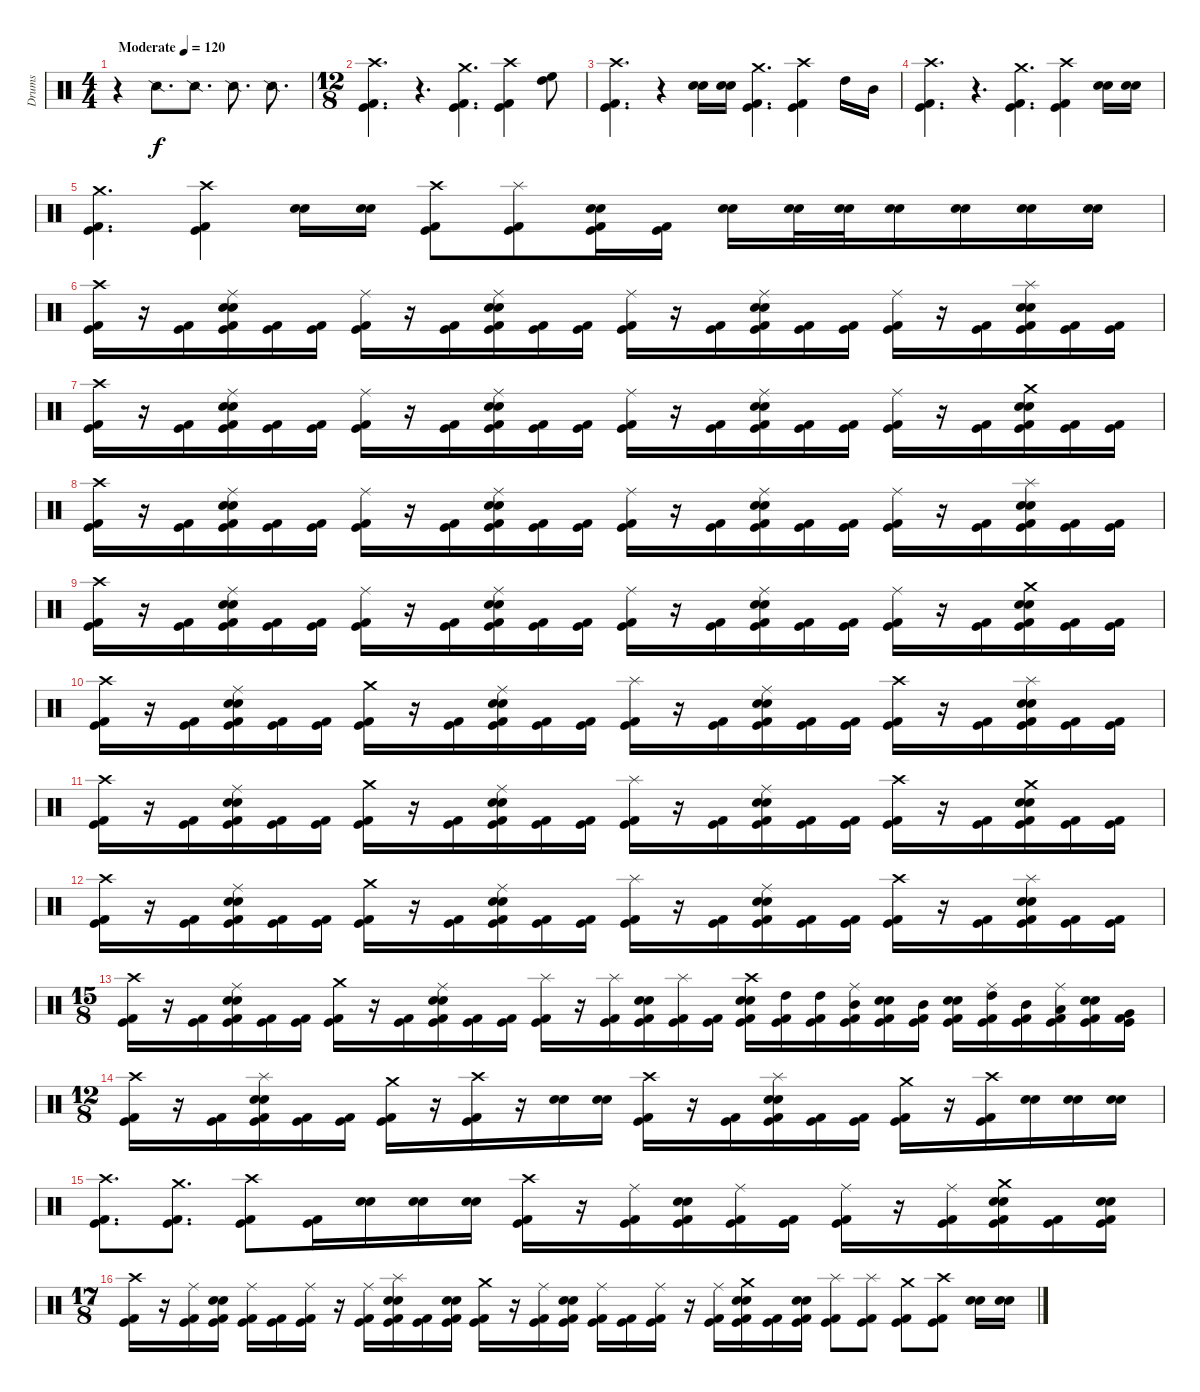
\track ("Drums" "Drums") {instrument percussion}
\staff {score}
\articulation defaults
\ts (4 4)
\tempo (120 "Moderate")
\clef neutral
\ks c
r.4{dy f} "Snare (side stick) 2".8{d} "Snare (side stick) 2".8{d} "Snare (side stick) 2".8{d} "Snare (side stick) 2".8{d} |
\ts (12 8)
("Crash high (hit)" "Kick (hit) 2" "Kick (hit)").4{d} r.4{d} ("Crash medium (hit)" "Kick (hit) 2" "Kick (hit)").4{d} ("Crash high (hit)" "Kick (hit) 2" "Kick (hit)").4 ("High Floor Tom (hit)" "High Tom (hit)").8{bd 60} |
("Crash high (hit)" "Kick (hit) 2" "Kick (hit)").4{d} r.4 ("Electric Snare (hit)" "Snare (hit) 2").16 ("Electric Snare (hit)" "Snare (hit) 2").16 ("Crash medium (hit)" "Kick (hit) 2" "Kick (hit)").4{d} ("Crash high (hit)" "Kick (hit) 2" "Kick (hit)").4 "High Tom (hit)".16 "Mid Tom (hit)".16 |
("Crash high (hit)" "Kick (hit) 2" "Kick (hit)").4{d} r.4{d} ("Crash medium (hit)" "Kick (hit) 2" "Kick (hit)").4{d} ("Crash high (hit)" "Kick (hit) 2" "Kick (hit)").4 ("Electric Snare (hit)" "Snare (hit) 2").16 ("Electric Snare (hit)" "Snare (hit) 2").16 |
("Crash medium (hit)" "Kick (hit) 2" "Kick (hit)").4{d} ("Crash high (hit)" "Kick (hit) 2" "Kick (hit)").4 ("Electric Snare (hit)" "Snare (hit) 2").16 ("Electric Snare (hit)" "Snare (hit) 2").16 ("Crash high (hit)" "Kick (hit) 2" "Kick (hit)").8 ("Splash (hit)" "Kick (hit) 2" "Kick (hit)").8 ("Electric Snare (hit)" "Snare (hit) 2" "Kick (hit) 2" "Kick (hit)").16 ("Kick (hit) 2" "Kick (hit)").16 ("Electric Snare (hit)" "Snare (hit) 2").16 ("Electric Snare (hit)" "Snare (hit) 2").32 ("Electric Snare (hit)" "Snare (hit) 2").32 ("Electric Snare (hit)" "Snare (hit) 2").16 ("Electric Snare (hit)" "Snare (hit) 2").16 ("Electric Snare (hit)" "Snare (hit) 2").16 ("Electric Snare (hit)" "Snare (hit) 2").16 |
("Crash high (hit)" "Kick (hit) 2" "Kick (hit)").16 r.16 ("Kick (hit) 2" "Kick (hit)").16 ("Ride (middle)" "Electric Snare (hit)" "Snare (hit) 2" "Kick (hit) 2" "Kick (hit)").16 ("Kick (hit) 2" "Kick (hit)").16 ("Kick (hit) 2" "Kick (hit)").16 ("Ride (middle)" "Kick (hit) 2" "Kick (hit)").16 r.16 ("Kick (hit) 2" "Kick (hit)").16 ("Ride (middle)" "Electric Snare (hit)" "Snare (hit) 2" "Kick (hit) 2" "Kick (hit)").16 ("Kick (hit) 2" "Kick (hit)").16 ("Kick (hit) 2" "Kick (hit)").16 ("Ride (middle)" "Kick (hit) 2" "Kick (hit)").16 r.16 ("Kick (hit) 2" "Kick (hit)").16 ("Ride (middle)" "Electric Snare (hit)" "Snare (hit) 2" "Kick (hit) 2" "Kick (hit)").16 ("Kick (hit) 2" "Kick (hit)").16 ("Kick (hit) 2" "Kick (hit)").16 ("Ride (middle)" "Kick (hit) 2" "Kick (hit)").16 r.16 ("Kick (hit) 2" "Kick (hit)").16 ("Splash (hit)" "Electric Snare (hit)" "Snare (hit) 2" "Kick (hit) 2" "Kick (hit)").16 ("Kick (hit) 2" "Kick (hit)").16 ("Kick (hit) 2" "Kick (hit)").16 |
("Crash high (hit)" "Kick (hit) 2" "Kick (hit)").16 r.16 ("Kick (hit) 2" "Kick (hit)").16 ("Ride (middle)" "Electric Snare (hit)" "Snare (hit) 2" "Kick (hit) 2" "Kick (hit)").16 ("Kick (hit) 2" "Kick (hit)").16 ("Kick (hit) 2" "Kick (hit)").16 ("Ride (middle)" "Kick (hit) 2" "Kick (hit)").16 r.16 ("Kick (hit) 2" "Kick (hit)").16 ("Ride (middle)" "Electric Snare (hit)" "Snare (hit) 2" "Kick (hit) 2" "Kick (hit)").16 ("Kick (hit) 2" "Kick (hit)").16 ("Kick (hit) 2" "Kick (hit)").16 ("Ride (middle)" "Kick (hit) 2" "Kick (hit)").16 r.16 ("Kick (hit) 2" "Kick (hit)").16 ("Ride (middle)" "Electric Snare (hit)" "Snare (hit) 2" "Kick (hit) 2" "Kick (hit)").16 ("Kick (hit) 2" "Kick (hit)").16 ("Kick (hit) 2" "Kick (hit)").16 ("Ride (middle)" "Kick (hit) 2" "Kick (hit)").16 r.16 ("Kick (hit) 2" "Kick (hit)").16 ("Crash medium (hit)" "Electric Snare (hit)" "Snare (hit) 2" "Kick (hit) 2" "Kick (hit)").16 ("Kick (hit) 2" "Kick (hit)").16 ("Kick (hit) 2" "Kick (hit)").16 |
("Crash high (hit)" "Kick (hit) 2" "Kick (hit)").16 r.16 ("Kick (hit) 2" "Kick (hit)").16 ("Ride (middle)" "Electric Snare (hit)" "Snare (hit) 2" "Kick (hit) 2" "Kick (hit)").16 ("Kick (hit) 2" "Kick (hit)").16 ("Kick (hit) 2" "Kick (hit)").16 ("Ride (middle)" "Kick (hit) 2" "Kick (hit)").16 r.16 ("Kick (hit) 2" "Kick (hit)").16 ("Ride (middle)" "Electric Snare (hit)" "Snare (hit) 2" "Kick (hit) 2" "Kick (hit)").16 ("Kick (hit) 2" "Kick (hit)").16 ("Kick (hit) 2" "Kick (hit)").16 ("Ride (middle)" "Kick (hit) 2" "Kick (hit)").16 r.16 ("Kick (hit) 2" "Kick (hit)").16 ("Ride (middle)" "Electric Snare (hit)" "Snare (hit) 2" "Kick (hit) 2" "Kick (hit)").16 ("Kick (hit) 2" "Kick (hit)").16 ("Kick (hit) 2" "Kick (hit)").16 ("Ride (middle)" "Kick (hit) 2" "Kick (hit)").16 r.16 ("Kick (hit) 2" "Kick (hit)").16 ("Splash (hit)" "Electric Snare (hit)" "Snare (hit) 2" "Kick (hit) 2" "Kick (hit)").16 ("Kick (hit) 2" "Kick (hit)").16 ("Kick (hit) 2" "Kick (hit)").16 |
("Crash high (hit)" "Kick (hit) 2" "Kick (hit)").16 r.16 ("Kick (hit) 2" "Kick (hit)").16 ("Ride (middle)" "Electric Snare (hit)" "Snare (hit) 2" "Kick (hit) 2" "Kick (hit)").16 ("Kick (hit) 2" "Kick (hit)").16 ("Kick (hit) 2" "Kick (hit)").16 ("Ride (middle)" "Kick (hit) 2" "Kick (hit)").16 r.16 ("Kick (hit) 2" "Kick (hit)").16 ("Ride (middle)" "Electric Snare (hit)" "Snare (hit) 2" "Kick (hit) 2" "Kick (hit)").16 ("Kick (hit) 2" "Kick (hit)").16 ("Kick (hit) 2" "Kick (hit)").16 ("Ride (middle)" "Kick (hit) 2" "Kick (hit)").16 r.16 ("Kick (hit) 2" "Kick (hit)").16 ("Ride (middle)" "Electric Snare (hit)" "Snare (hit) 2" "Kick (hit) 2" "Kick (hit)").16 ("Kick (hit) 2" "Kick (hit)").16 ("Kick (hit) 2" "Kick (hit)").16 ("Ride (middle)" "Kick (hit) 2" "Kick (hit)").16 r.16 ("Kick (hit) 2" "Kick (hit)").16 ("Crash medium (hit)" "Electric Snare (hit)" "Snare (hit) 2" "Kick (hit) 2" "Kick (hit)").16 ("Kick (hit) 2" "Kick (hit)").16 ("Kick (hit) 2" "Kick (hit)").16 |
("Crash high (hit)" "Kick (hit) 2" "Kick (hit)").16 r.16 ("Kick (hit) 2" "Kick (hit)").16 ("Ride (middle)" "Electric Snare (hit)" "Snare (hit) 2" "Kick (hit) 2" "Kick (hit)").16 ("Kick (hit) 2" "Kick (hit)").16 ("Kick (hit) 2" "Kick (hit)").16 ("Crash medium (hit)" "Kick (hit) 2" "Kick (hit)").16 r.16 ("Kick (hit) 2" "Kick (hit)").16 ("Ride (middle)" "Electric Snare (hit)" "Snare (hit) 2" "Kick (hit) 2" "Kick (hit)").16 ("Kick (hit) 2" "Kick (hit)").16 ("Kick (hit) 2" "Kick (hit)").16 ("Splash (hit)" "Kick (hit) 2" "Kick (hit)").16 r.16 ("Kick (hit) 2" "Kick (hit)").16 ("Ride (middle)" "Electric Snare (hit)" "Snare (hit) 2" "Kick (hit) 2" "Kick (hit)").16 ("Kick (hit) 2" "Kick (hit)").16 ("Kick (hit) 2" "Kick (hit)").16 ("Crash high (hit)" "Kick (hit) 2" "Kick (hit)").16 r.16 ("Kick (hit) 2" "Kick (hit)").16 ("Splash (hit)" "Electric Snare (hit)" "Snare (hit) 2" "Kick (hit) 2" "Kick (hit)").16 ("Kick (hit) 2" "Kick (hit)").16 ("Kick (hit) 2" "Kick (hit)").16 |
("Crash high (hit)" "Kick (hit) 2" "Kick (hit)").16 r.16 ("Kick (hit) 2" "Kick (hit)").16 ("Ride (middle)" "Electric Snare (hit)" "Snare (hit) 2" "Kick (hit) 2" "Kick (hit)").16 ("Kick (hit) 2" "Kick (hit)").16 ("Kick (hit) 2" "Kick (hit)").16 ("Crash medium (hit)" "Kick (hit) 2" "Kick (hit)").16 r.16 ("Kick (hit) 2" "Kick (hit)").16 ("Ride (middle)" "Electric Snare (hit)" "Snare (hit) 2" "Kick (hit) 2" "Kick (hit)").16 ("Kick (hit) 2" "Kick (hit)").16 ("Kick (hit) 2" "Kick (hit)").16 ("Splash (hit)" "Kick (hit) 2" "Kick (hit)").16 r.16 ("Kick (hit) 2" "Kick (hit)").16 ("Ride (middle)" "Electric Snare (hit)" "Snare (hit) 2" "Kick (hit) 2" "Kick (hit)").16 ("Kick (hit) 2" "Kick (hit)").16 ("Kick (hit) 2" "Kick (hit)").16 ("Crash high (hit)" "Kick (hit) 2" "Kick (hit)").16 r.16 ("Kick (hit) 2" "Kick (hit)").16 ("Crash medium (hit)" "Electric Snare (hit)" "Snare (hit) 2" "Kick (hit) 2" "Kick (hit)").16 ("Kick (hit) 2" "Kick (hit)").16 ("Kick (hit) 2" "Kick (hit)").16 |
("Crash high (hit)" "Kick (hit) 2" "Kick (hit)").16 r.16 ("Kick (hit) 2" "Kick (hit)").16 ("Ride (middle)" "Electric Snare (hit)" "Snare (hit) 2" "Kick (hit) 2" "Kick (hit)").16 ("Kick (hit) 2" "Kick (hit)").16 ("Kick (hit) 2" "Kick (hit)").16 ("Crash medium (hit)" "Kick (hit) 2" "Kick (hit)").16 r.16 ("Kick (hit) 2" "Kick (hit)").16 ("Ride (middle)" "Electric Snare (hit)" "Snare (hit) 2" "Kick (hit) 2" "Kick (hit)").16 ("Kick (hit) 2" "Kick (hit)").16 ("Kick (hit) 2" "Kick (hit)").16 ("Splash (hit)" "Kick (hit) 2" "Kick (hit)").16 r.16 ("Kick (hit) 2" "Kick (hit)").16 ("Ride (middle)" "Electric Snare (hit)" "Snare (hit) 2" "Kick (hit) 2" "Kick (hit)").16 ("Kick (hit) 2" "Kick (hit)").16 ("Kick (hit) 2" "Kick (hit)").16 ("Crash high (hit)" "Kick (hit) 2" "Kick (hit)").16 r.16 ("Kick (hit) 2" "Kick (hit)").16 ("Splash (hit)" "Electric Snare (hit)" "Snare (hit) 2" "Kick (hit) 2" "Kick (hit)").16 ("Kick (hit) 2" "Kick (hit)").16 ("Kick (hit) 2" "Kick (hit)").16 |
\ts (15 8)
("Crash high (hit)" "Kick (hit) 2" "Kick (hit)").16 r.16 ("Kick (hit) 2" "Kick (hit)").16 ("Ride (middle)" "Electric Snare (hit)" "Snare (hit) 2" "Kick (hit) 2" "Kick (hit)").16 ("Kick (hit) 2" "Kick (hit)").16 ("Kick (hit) 2" "Kick (hit)").16 ("Crash medium (hit)" "Kick (hit) 2" "Kick (hit)").16 r.16 ("Kick (hit) 2" "Kick (hit)").16 ("Ride (middle)" "Electric Snare (hit)" "Snare (hit) 2" "Kick (hit) 2" "Kick (hit)").16 ("Kick (hit) 2" "Kick (hit)").16 ("Kick (hit) 2" "Kick (hit)").16 ("Splash (hit)" "Kick (hit) 2" "Kick (hit)").16 r.16 ("Splash (hit)" "Kick (hit) 2" "Kick (hit)").16 ("Electric Snare (hit)" "Snare (hit) 2" "Kick (hit) 2" "Kick (hit)").16 ("Splash (hit)" "Kick (hit) 2" "Kick (hit)").16 ("Kick (hit) 2" "Kick (hit)").16 ("Electric Snare (hit)" "Snare (hit) 2" "Crash high (hit)" "Kick (hit) 2" "Kick (hit)").16 ("High Tom (hit)" "Kick (hit) 2" "Kick (hit)").16 ("High Tom (hit)" "Kick (hit) 2" "Kick (hit)").16 ("Mid Tom (hit)" "Ride (middle)" "Kick (hit) 2" "Kick (hit)").16 ("Electric Snare (hit)" "Snare (hit) 2" "Kick (hit) 2" "Kick (hit)").16 ("Mid Tom (hit)" "Kick (hit) 2" "Kick (hit)").16 ("Electric Snare (hit)" "Snare (hit) 2" "Kick (hit) 2" "Kick (hit)").16 ("High Tom (hit)" "Ride (middle)" "Kick (hit) 2" "Kick (hit)").16 ("Mid Tom (hit)" "Kick (hit) 2" "Kick (hit)").16 ("Low Tom (hit)" "Ride (middle)" "Kick (hit) 2" "Kick (hit)").16 ("Electric Snare (hit)" "Snare (hit) 2" "Kick (hit) 2" "Kick (hit)").16 ("Very Low Tom (hit)" "Kick (hit) 2" "Kick (hit)").16 |
\ts (12 8)
("Crash high (hit)" "Kick (hit) 2" "Kick (hit)").16 r.16 ("Kick (hit) 2" "Kick (hit)").16 ("Splash (hit)" "Electric Snare (hit)" "Snare (hit) 2" "Kick (hit) 2" "Kick (hit)").16 ("Kick (hit) 2" "Kick (hit)").16 ("Kick (hit) 2" "Kick (hit)").16 ("Crash medium (hit)" "Kick (hit) 2" "Kick (hit)").16 r.16 ("Crash high (hit)" "Kick (hit) 2" "Kick (hit)").16 r.16 ("Electric Snare (hit)" "Snare (hit) 2").16 ("Electric Snare (hit)" "Snare (hit) 2").16 ("Crash high (hit)" "Kick (hit) 2" "Kick (hit)").16 r.16 ("Kick (hit) 2" "Kick (hit)").16 ("Splash (hit)" "Electric Snare (hit)" "Snare (hit) 2" "Kick (hit) 2" "Kick (hit)").16 ("Kick (hit) 2" "Kick (hit)").16 ("Kick (hit) 2" "Kick (hit)").16 ("Crash medium (hit)" "Kick (hit) 2" "Kick (hit)").16 r.16 ("Crash high (hit)" "Kick (hit) 2" "Kick (hit)").16 ("Electric Snare (hit)" "Snare (hit) 2").16 ("Electric Snare (hit)" "Snare (hit) 2").16 ("Electric Snare (hit)" "Snare (hit) 2").16 |
("Crash high (hit)" "Kick (hit) 2" "Kick (hit)").8{d} ("Crash medium (hit)" "Kick (hit) 2" "Kick (hit)").8{d} ("Crash high (hit)" "Kick (hit) 2" "Kick (hit)").8 ("Kick (hit) 2" "Kick (hit)").16 ("Electric Snare (hit)" "Snare (hit) 2").16 ("Electric Snare (hit)" "Snare (hit) 2").16 ("Electric Snare (hit)" "Snare (hit) 2").16 ("Crash high (hit)" "Kick (hit) 2" "Kick (hit)").16 r.16 ("Ride (middle)" "Kick (hit) 2" "Kick (hit)").16 ("Electric Snare (hit)" "Snare (hit) 2" "Kick (hit) 2" "Kick (hit)").16 ("Ride (middle)" "Kick (hit) 2" "Kick (hit)").16 ("Kick (hit) 2" "Kick (hit)").16 ("Ride (middle)" "Kick (hit) 2" "Kick (hit)").16 r.16 ("Ride (middle)" "Kick (hit) 2" "Kick (hit)").16 ("Crash medium (hit)" "Electric Snare (hit)" "Snare (hit) 2" "Kick (hit) 2" "Kick (hit)").16 ("Kick (hit) 2" "Kick (hit)").16 ("Electric Snare (hit)" "Snare (hit) 2" "Kick (hit) 2" "Kick (hit)").16 |
\ts (17 8)
("Crash high (hit)" "Kick (hit) 2" "Kick (hit)").16 r.16 ("Ride (middle)" "Kick (hit) 2" "Kick (hit)").16 ("Electric Snare (hit)" "Snare (hit) 2" "Kick (hit) 2" "Kick (hit)").16 ("Ride (middle)" "Kick (hit) 2" "Kick (hit)").16 ("Kick (hit) 2" "Kick (hit)").16 ("Ride (middle)" "Kick (hit) 2" "Kick (hit)").16 r.16 ("Ride (middle)" "Kick (hit) 2" "Kick (hit)").16 ("Splash (hit)" "Electric Snare (hit)" "Snare (hit) 2" "Kick (hit) 2" "Kick (hit)").16 ("Kick (hit) 2" "Kick (hit)").16 ("Electric Snare (hit)" "Snare (hit) 2" "Kick (hit) 2" "Kick (hit)").16 ("Crash medium (hit)" "Kick (hit) 2" "Kick (hit)").16 r.16 ("Ride (middle)" "Kick (hit) 2" "Kick (hit)").16 ("Electric Snare (hit)" "Snare (hit) 2" "Kick (hit) 2" "Kick (hit)").16 ("Ride (middle)" "Kick (hit) 2" "Kick (hit)").16 ("Kick (hit) 2" "Kick (hit)").16 ("Ride (middle)" "Kick (hit) 2" "Kick (hit)").16 r.16 ("Ride (middle)" "Kick (hit) 2" "Kick (hit)").16 ("Crash medium (hit)" "Electric Snare (hit)" "Snare (hit) 2" "Kick (hit) 2" "Kick (hit)").16 ("Kick (hit) 2" "Kick (hit)").16 ("Electric Snare (hit)" "Snare (hit) 2" "Kick (hit) 2" "Kick (hit)").16 ("Splash (hit)" "Kick (hit) 2" "Kick (hit)").8 ("Splash (hit)" "Kick (hit) 2" "Kick (hit)").8 ("Crash medium (hit)" "Kick (hit) 2" "Kick (hit)").8 ("Crash high (hit)" "Kick (hit) 2" "Kick (hit)").8 ("Electric Snare (hit)" "Snare (hit) 2").16 ("Electric Snare (hit)" "Snare (hit) 2").16
